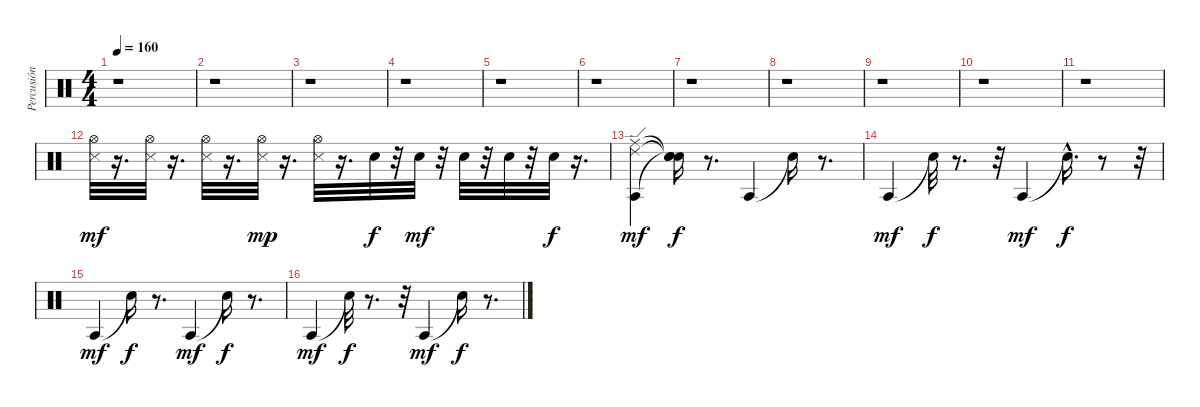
\track ("Percusión" "Percusión") {instrument percussion}
\staff {score}
\articulation defaults
\ts (4 4)
\tempo 160
\clef neutral
\ks c
r.1{dy mf} |
r.1 |
r.1 |
r.1 |
r.1 |
r.1 |
r.1 |
r.1 |
r.1 |
r.1 |
r.1 |
("Hi-Hat (open)" "Snare (side stick) 3").32 r.16{d} ("Hi-Hat (open)" "Snare (side stick) 3").32 r.16{d} ("Snare (side stick) 3" "Hi-Hat (open)").32 r.16{d} ("Snare (side stick) 3" "Hi-Hat (open)").32{dy mp} r.16{d} ("Snare (side stick) 3" "Hi-Hat (open)").32 r.16{d} "Electric Snare (hit)".32{dy f} r.32 "Electric Snare (hit)".32{dy mf} r.32 "Electric Snare (hit)".32 r.32 "Electric Snare (hit)".32 r.32 "Electric Snare (hit)".32{dy f} r.16{d} |
("Ride (middle)" "Agogo tow (hit)" "Ride (edge) 2").4{dy mf} ("Snare (hit)"{t} "Snare (hit)"{t} "Snare (hit)"{t}).16{dy f} r.8{d} "Agogo tow (hit)".4 "Snare (hit)"{t}.16 r.8{d} |
"Agogo tow (hit)".4{dy mf} "Snare (hit)"{t}.32{dy f} r.8{d} r.32 "Agogo tow (hit)".4{dy mf} "Snare (hit)"{hac t}.16{d dy f} r.8 r.32 |
"Agogo tow (hit)".4{dy mf} "Snare (hit)"{t}.16{dy f} r.8{d} "Agogo tow (hit)".4{dy mf} "Snare (hit)"{t}.16{dy f} r.8{d} |
"Agogo tow (hit)".4{dy mf} "Snare (hit)"{t}.32{dy f} r.8{d} r.32 "Agogo tow (hit)".4{dy mf} "Snare (hit)"{t}.16{dy f} r.8{d}
